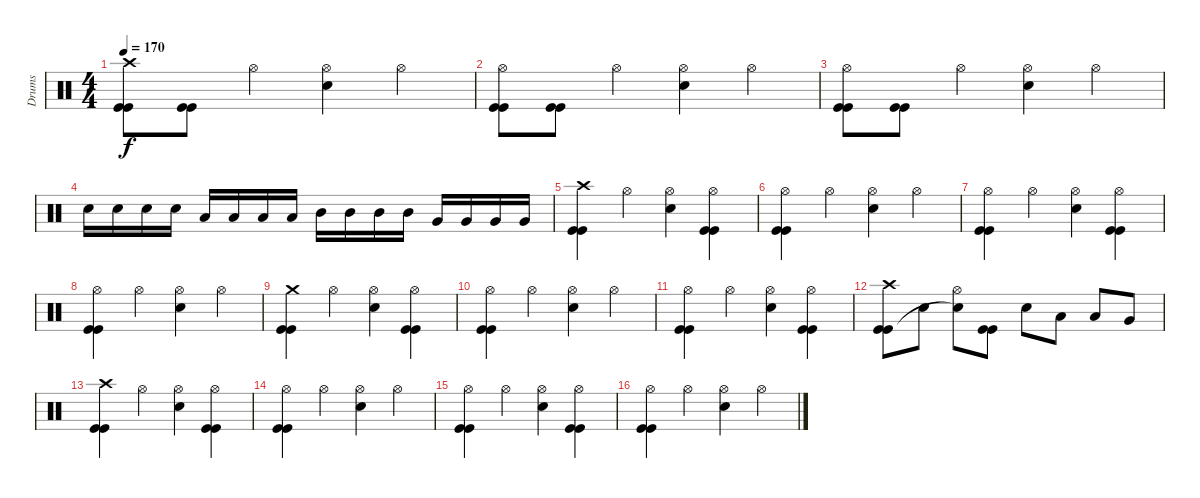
\track ("Drums" "Drums") {instrument percussion}
\staff {score}
\articulation defaults
\ts (4 4)
\tempo 170
\clef neutral
\ks c
("Crash high (hit)" "Kick (hit)" "Kick (hit)").8{dy f} ("Kick (hit)" "Kick (hit)").8 "Hi-Hat (open)".4 ("Hi-Hat (open)" "Snare (hit) 2").4 "Hi-Hat (open)".4 |
("Hi-Hat (open)" "Kick (hit)" "Kick (hit)").8 ("Kick (hit)" "Kick (hit)").8 "Hi-Hat (open)".4 ("Hi-Hat (open)" "Snare (hit) 2").4 "Hi-Hat (open)".4 |
("Hi-Hat (open)" "Kick (hit)" "Kick (hit)").8 ("Kick (hit)" "Kick (hit)").8 "Hi-Hat (open)".4 ("Hi-Hat (open)" "Snare (hit) 2").4 "Hi-Hat (open)".4 |
"Snare (hit) 2".16 "Snare (hit) 2".16 "Snare (hit) 2".16 "Snare (hit) 2".16 "Low Tom (hit)".16 "Low Tom (hit)".16 "Low Tom (hit)".16 "Low Tom (hit)".16 "Mid Tom (hit)".16 "Mid Tom (hit)".16 "Mid Tom (hit)".16 "Mid Tom (hit)".16 "Very Low Tom (hit)".16 "Very Low Tom (hit)".16 "Very Low Tom (hit)".16 "Very Low Tom (hit)".16 |
("Crash high (hit)" "Kick (hit)" "Kick (hit)").4 "Hi-Hat (open)".4 ("Hi-Hat (open)" "Snare (hit) 2").4 ("Hi-Hat (open)" "Kick (hit)" "Kick (hit)").4 |
("Hi-Hat (open)" "Kick (hit)" "Kick (hit)").4 "Hi-Hat (open)".4 ("Hi-Hat (open)" "Snare (hit) 2").4 "Hi-Hat (open)".4 |
("Hi-Hat (open)" "Kick (hit)" "Kick (hit)").4 "Hi-Hat (open)".4 ("Hi-Hat (open)" "Snare (hit) 2").4 ("Hi-Hat (open)" "Kick (hit)" "Kick (hit)").4 |
("Hi-Hat (open)" "Kick (hit)" "Kick (hit)").4 "Hi-Hat (open)".4 ("Hi-Hat (open)" "Snare (hit) 2").4 "Hi-Hat (open)".4 |
("Crash medium (hit)" "Kick (hit)" "Kick (hit)").4 "Hi-Hat (open)".4 ("Hi-Hat (open)" "Snare (hit) 2").4 ("Hi-Hat (open)" "Kick (hit)" "Kick (hit)").4 |
("Hi-Hat (open)" "Kick (hit)" "Kick (hit)").4 "Hi-Hat (open)".4 ("Hi-Hat (open)" "Snare (hit) 2").4 "Hi-Hat (open)".4 |
("Hi-Hat (open)" "Kick (hit)" "Kick (hit)").4 "Hi-Hat (open)".4 ("Hi-Hat (open)" "Snare (hit) 2").4 ("Hi-Hat (open)" "Kick (hit)" "Kick (hit)").4 |
("Crash high (hit)" "Kick (hit)" "Kick (hit)").8 "Snare (hit) 2".8 ("Hi-Hat (open)" "Snare (hit) 2"{t}).8 ("Kick (hit)" "Kick (hit)").8 "Snare (hit) 2".8 "Low Tom (hit)".8 "Low Tom (hit)".8 "Very Low Tom (hit)".8 |
("Crash high (hit)" "Kick (hit)" "Kick (hit)").4 "Hi-Hat (open)".4 ("Hi-Hat (open)" "Snare (hit) 2").4 ("Hi-Hat (open)" "Kick (hit)" "Kick (hit)").4 |
("Hi-Hat (open)" "Kick (hit)" "Kick (hit)").4 "Hi-Hat (open)".4 ("Hi-Hat (open)" "Snare (hit) 2").4 "Hi-Hat (open)".4 |
("Hi-Hat (open)" "Kick (hit)" "Kick (hit)").4 "Hi-Hat (open)".4 ("Hi-Hat (open)" "Snare (hit) 2").4 ("Hi-Hat (open)" "Kick (hit)" "Kick (hit)").4 |
("Hi-Hat (open)" "Kick (hit)" "Kick (hit)").4 "Hi-Hat (open)".4 ("Hi-Hat (open)" "Snare (hit) 2").4 "Hi-Hat (open)".4
